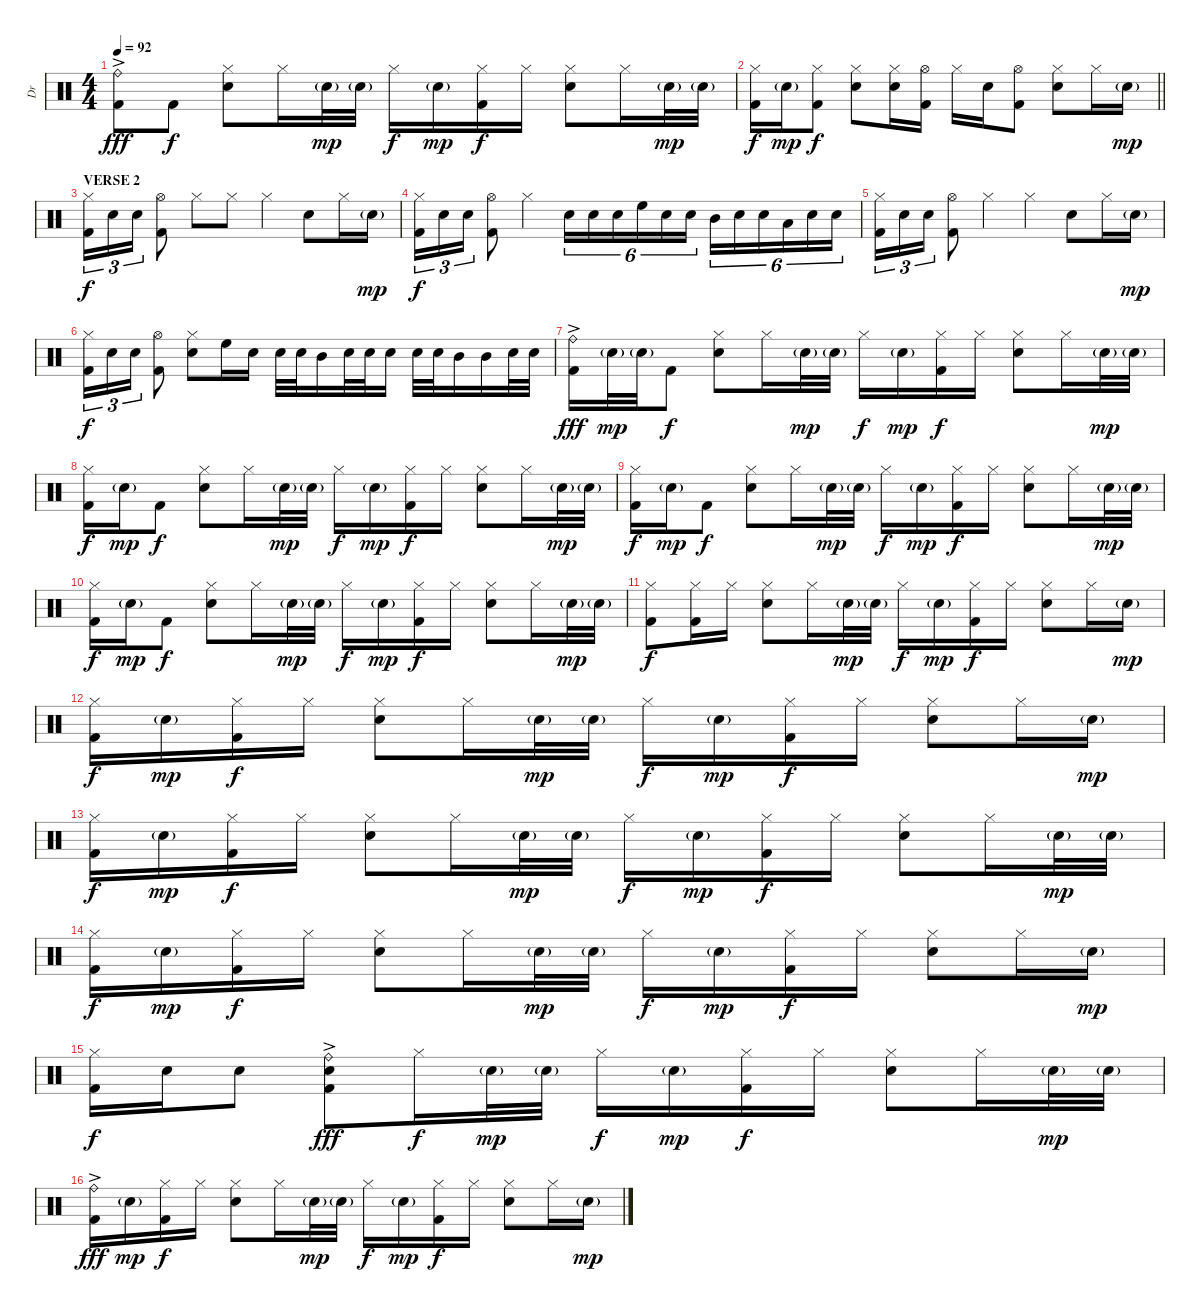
\track ("Dr" "Dr") {instrument percussion}
\staff {score}
\articulation defaults
\ts (4 4)
\tempo 92
\clef neutral
\ks c
("Ride (bell)"{ac} "Kick (hit) 2"{ac}).8{dy fff} "Kick (hit) 2".8{dy f} ("Hi-Hat (closed)" "Electric Snare (hit)").8 "Hi-Hat (closed)".16 "Electric Snare (hit)"{g}.32{dy mp} "Electric Snare (hit)"{g}.32 "Hi-Hat (closed)".16{dy f} "Electric Snare (hit)"{g}.16{dy mp} ("Hi-Hat (closed)" "Kick (hit) 2").16{dy f} "Hi-Hat (closed)".16 ("Hi-Hat (closed)" "Electric Snare (hit)").8 "Hi-Hat (closed)".16 "Electric Snare (hit)"{g}.32{dy mp} "Electric Snare (hit)"{g}.32 |
\barLineRight lightlight
("Hi-Hat (closed)" "Kick (hit) 2").16{dy f} "Electric Snare (hit)"{g}.16{dy mp} ("Hi-Hat (closed)" "Kick (hit) 2").8{dy f} ("Hi-Hat (closed)" "Electric Snare (hit)").8 ("Hi-Hat (closed)" "Electric Snare (hit)").16 ("Hi-Hat (open)" "Kick (hit) 2").16 "Hi-Hat (closed)".16 "Electric Snare (hit)".16 ("Hi-Hat (open)" "Kick (hit) 2").8 ("Hi-Hat (closed)" "Electric Snare (hit)").8 "Hi-Hat (closed)".16 "Electric Snare (hit)"{g}.16{dy mp} |
\section ("" "VERSE 2")
("Hi-Hat (closed)" "Kick (hit) 2").16{tu (3 2) dy f} "Electric Snare (hit)".16{tu (3 2)} "Electric Snare (hit)".16{tu (3 2)} ("Hi-Hat (open)" "Kick (hit) 2").8 "Hi-Hat (closed)".8 "Hi-Hat (closed)".8 "Hi-Hat (closed)".4 "Electric Snare (hit)".8 "Hi-Hat (closed)".16 "Electric Snare (hit)"{g}.16{dy mp} |
("Hi-Hat (closed)" "Kick (hit) 2").16{tu (3 2) dy f} "Electric Snare (hit)".16{tu (3 2)} "Electric Snare (hit)".16{tu (3 2)} ("Hi-Hat (open)" "Kick (hit) 2").8 "Hi-Hat (closed)".4 "Electric Snare (hit)".16{tu (6 4)} "Electric Snare (hit)".16{tu (6 4)} "Electric Snare (hit)".16{tu (6 4)} "High Floor Tom (hit)".16{tu (6 4)} "Electric Snare (hit)".16{tu (6 4)} "Electric Snare (hit)".16{tu (6 4)} "Mid Tom (hit)".16{tu (6 4)} "Electric Snare (hit)".16{tu (6 4)} "Electric Snare (hit)".16{tu (6 4)} "Low Tom (hit)".16{tu (6 4)} "Electric Snare (hit)".16{tu (6 4)} "Electric Snare (hit)".16{tu (6 4)} |
("Hi-Hat (closed)" "Kick (hit) 2").16{tu (3 2)} "Electric Snare (hit)".16{tu (3 2)} "Electric Snare (hit)".16{tu (3 2)} ("Hi-Hat (open)" "Kick (hit) 2").8 "Hi-Hat (closed)".4 "Hi-Hat (closed)".4 "Electric Snare (hit)".8 "Hi-Hat (closed)".16 "Electric Snare (hit)"{g}.16{dy mp} |
("Hi-Hat (closed)" "Kick (hit) 2").16{tu (3 2) dy f} "Electric Snare (hit)".16{tu (3 2)} "Electric Snare (hit)".16{tu (3 2)} ("Hi-Hat (open)" "Kick (hit) 2").8 ("Hi-Hat (closed)" "Electric Snare (hit)").8 "High Floor Tom (hit)".16 "Electric Snare (hit)".16 "Electric Snare (hit)".32 "Electric Snare (hit)".32 "Mid Tom (hit)".16 "Electric Snare (hit)".32 "Electric Snare (hit)".32 "Electric Snare (hit)".16 "Electric Snare (hit)".32 "Electric Snare (hit)".32 "Mid Tom (hit)".16 "Mid Tom (hit)".16 "Electric Snare (hit)".32 "Electric Snare (hit)".32 |
("Ride (bell)"{ac} "Kick (hit) 2"{ac}).16{dy fff} "Electric Snare (hit)"{g}.32{dy mp} "Electric Snare (hit)"{g}.32 "Kick (hit) 2".8{dy f} ("Hi-Hat (closed)" "Electric Snare (hit)").8 "Hi-Hat (closed)".16 "Electric Snare (hit)"{g}.32{dy mp} "Electric Snare (hit)"{g}.32 "Hi-Hat (closed)".16{dy f} "Electric Snare (hit)"{g}.16{dy mp} ("Hi-Hat (closed)" "Kick (hit) 2").16{dy f} "Hi-Hat (closed)".16 ("Hi-Hat (closed)" "Electric Snare (hit)").8 "Hi-Hat (closed)".16 "Electric Snare (hit)"{g}.32{dy mp} "Electric Snare (hit)"{g}.32 |
("Hi-Hat (closed)" "Kick (hit) 2").16{dy f} "Electric Snare (hit)"{g}.16{dy mp} "Kick (hit) 2".8{dy f} ("Hi-Hat (closed)" "Electric Snare (hit)").8 "Hi-Hat (closed)".16 "Electric Snare (hit)"{g}.32{dy mp} "Electric Snare (hit)"{g}.32 "Hi-Hat (closed)".16{dy f} "Electric Snare (hit)"{g}.16{dy mp} ("Hi-Hat (closed)" "Kick (hit) 2").16{dy f} "Hi-Hat (closed)".16 ("Hi-Hat (closed)" "Electric Snare (hit)").8 "Hi-Hat (closed)".16 "Electric Snare (hit)"{g}.32{dy mp} "Electric Snare (hit)"{g}.32 |
("Hi-Hat (closed)" "Kick (hit) 2").16{dy f} "Electric Snare (hit)"{g}.16{dy mp} "Kick (hit) 2".8{dy f} ("Hi-Hat (closed)" "Electric Snare (hit)").8 "Hi-Hat (closed)".16 "Electric Snare (hit)"{g}.32{dy mp} "Electric Snare (hit)"{g}.32 "Hi-Hat (closed)".16{dy f} "Electric Snare (hit)"{g}.16{dy mp} ("Hi-Hat (closed)" "Kick (hit) 2").16{dy f} "Hi-Hat (closed)".16 ("Hi-Hat (closed)" "Electric Snare (hit)").8 "Hi-Hat (closed)".16 "Electric Snare (hit)"{g}.32{dy mp} "Electric Snare (hit)"{g}.32 |
("Hi-Hat (closed)" "Kick (hit) 2").16{dy f} "Electric Snare (hit)"{g}.16{dy mp} "Kick (hit) 2".8{dy f} ("Hi-Hat (closed)" "Electric Snare (hit)").8 "Hi-Hat (closed)".16 "Electric Snare (hit)"{g}.32{dy mp} "Electric Snare (hit)"{g}.32 "Hi-Hat (closed)".16{dy f} "Electric Snare (hit)"{g}.16{dy mp} ("Hi-Hat (closed)" "Kick (hit) 2").16{dy f} "Hi-Hat (closed)".16 ("Hi-Hat (closed)" "Electric Snare (hit)").8 "Hi-Hat (closed)".16 "Electric Snare (hit)"{g}.32{dy mp} "Electric Snare (hit)"{g}.32 |
("Hi-Hat (closed)" "Kick (hit) 2").8{dy f} ("Hi-Hat (closed)" "Kick (hit) 2").16 "Hi-Hat (closed)".16 ("Hi-Hat (closed)" "Electric Snare (hit)").8 "Hi-Hat (closed)".16 "Electric Snare (hit)"{g}.32{dy mp} "Electric Snare (hit)"{g}.32 "Hi-Hat (closed)".16{dy f} "Electric Snare (hit)"{g}.16{dy mp} ("Hi-Hat (closed)" "Kick (hit) 2").16{dy f} "Hi-Hat (closed)".16 ("Hi-Hat (closed)" "Electric Snare (hit)").8 "Hi-Hat (closed)".16 "Electric Snare (hit)"{g}.16{dy mp} |
("Hi-Hat (closed)" "Kick (hit) 2").16{dy f} "Electric Snare (hit)"{g}.16{dy mp} ("Hi-Hat (closed)" "Kick (hit) 2").16{dy f} "Hi-Hat (closed)".16 ("Hi-Hat (closed)" "Electric Snare (hit)").8 "Hi-Hat (closed)".16 "Electric Snare (hit)"{g}.32{dy mp} "Electric Snare (hit)"{g}.32 "Hi-Hat (closed)".16{dy f} "Electric Snare (hit)"{g}.16{dy mp} ("Hi-Hat (closed)" "Kick (hit) 2").16{dy f} "Hi-Hat (closed)".16 ("Hi-Hat (closed)" "Electric Snare (hit)").8 "Hi-Hat (closed)".16 "Electric Snare (hit)"{g}.16{dy mp} |
("Hi-Hat (closed)" "Kick (hit) 2").16{dy f} "Electric Snare (hit)"{g}.16{dy mp} ("Hi-Hat (closed)" "Kick (hit) 2").16{dy f} "Hi-Hat (closed)".16 ("Hi-Hat (closed)" "Electric Snare (hit)").8 "Hi-Hat (closed)".16 "Electric Snare (hit)"{g}.32{dy mp} "Electric Snare (hit)"{g}.32 "Hi-Hat (closed)".16{dy f} "Electric Snare (hit)"{g}.16{dy mp} ("Hi-Hat (closed)" "Kick (hit) 2").16{dy f} "Hi-Hat (closed)".16 ("Hi-Hat (closed)" "Electric Snare (hit)").8 "Hi-Hat (closed)".16 "Electric Snare (hit)"{g}.32{dy mp} "Electric Snare (hit)"{g}.32 |
("Hi-Hat (closed)" "Kick (hit) 2").16{dy f} "Electric Snare (hit)"{g}.16{dy mp} ("Hi-Hat (closed)" "Kick (hit) 2").16{dy f} "Hi-Hat (closed)".16 ("Hi-Hat (closed)" "Electric Snare (hit)").8 "Hi-Hat (closed)".16 "Electric Snare (hit)"{g}.32{dy mp} "Electric Snare (hit)"{g}.32 "Hi-Hat (closed)".16{dy f} "Electric Snare (hit)"{g}.16{dy mp} ("Hi-Hat (closed)" "Kick (hit) 2").16{dy f} "Hi-Hat (closed)".16 ("Hi-Hat (closed)" "Electric Snare (hit)").8 "Hi-Hat (closed)".16 "Electric Snare (hit)"{g}.16{dy mp} |
("Hi-Hat (closed)" "Kick (hit) 2").16{dy f} "Electric Snare (hit)".16 "Electric Snare (hit)".8 ("Ride (bell)"{ac} "Electric Snare (hit)"{ac} "Kick (hit) 2"{ac}).8{dy fff} "Hi-Hat (closed)".16{dy f} "Electric Snare (hit)"{g}.32{dy mp} "Electric Snare (hit)"{g}.32 "Hi-Hat (closed)".16{dy f} "Electric Snare (hit)"{g}.16{dy mp} ("Hi-Hat (closed)" "Kick (hit) 2").16{dy f} "Hi-Hat (closed)".16 ("Hi-Hat (closed)" "Electric Snare (hit)").8 "Hi-Hat (closed)".16 "Electric Snare (hit)"{g}.32{dy mp} "Electric Snare (hit)"{g}.32 |
("Ride (bell)"{ac} "Kick (hit) 2"{ac}).16{dy fff} "Electric Snare (hit)"{g}.16{dy mp} ("Hi-Hat (closed)" "Kick (hit) 2").16{dy f} "Hi-Hat (closed)".16 ("Hi-Hat (closed)" "Electric Snare (hit)").8 "Hi-Hat (closed)".16 "Electric Snare (hit)"{g}.32{dy mp} "Electric Snare (hit)"{g}.32 "Hi-Hat (closed)".16{dy f} "Electric Snare (hit)"{g}.16{dy mp} ("Hi-Hat (closed)" "Kick (hit) 2").16{dy f} "Hi-Hat (closed)".16 ("Hi-Hat (closed)" "Electric Snare (hit)").8 "Hi-Hat (closed)".16 "Electric Snare (hit)"{g}.16{dy mp}
